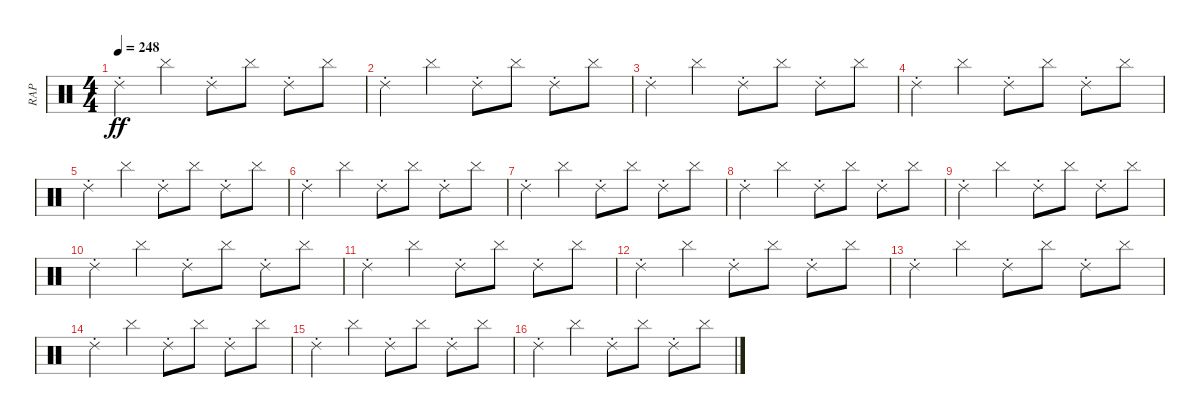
\track ("RAP" "RAP") {instrument percussion}
\staff {score}
\articulation defaults
\ts (4 4)
\tempo 248
\clef neutral
\ks c "Ride (choke) 2".4{dy ff} "Cymbal (hit)".4 "Ride (choke) 2".8 "Cymbal (hit)".8 "Ride (choke) 2".8 "Cymbal (hit)".8
|
"Ride (choke) 2".4 "Cymbal (hit)".4 "Ride (choke) 2".8 "Cymbal (hit)".8 "Ride (choke) 2".8 "Cymbal (hit)".8 |
"Ride (choke) 2".4 "Cymbal (hit)".4 "Ride (choke) 2".8 "Cymbal (hit)".8 "Ride (choke) 2".8 "Cymbal (hit)".8 |
"Ride (choke) 2".4 "Cymbal (hit)".4 "Ride (choke) 2".8 "Cymbal (hit)".8 "Ride (choke) 2".8 "Cymbal (hit)".8 |
"Ride (choke) 2".4 "Cymbal (hit)".4 "Ride (choke) 2".8 "Cymbal (hit)".8 "Ride (choke) 2".8 "Cymbal (hit)".8 |
"Ride (choke) 2".4 "Cymbal (hit)".4 "Ride (choke) 2".8 "Cymbal (hit)".8 "Ride (choke) 2".8 "Cymbal (hit)".8 |
"Ride (choke) 2".4 "Cymbal (hit)".4 "Ride (choke) 2".8 "Cymbal (hit)".8 "Ride (choke) 2".8 "Cymbal (hit)".8 |
"Ride (choke) 2".4 "Cymbal (hit)".4 "Ride (choke) 2".8 "Cymbal (hit)".8 "Ride (choke) 2".8 "Cymbal (hit)".8 |
"Ride (choke) 2".4 "Cymbal (hit)".4 "Ride (choke) 2".8 "Cymbal (hit)".8 "Ride (choke) 2".8 "Cymbal (hit)".8 |
"Ride (choke) 2".4 "Cymbal (hit)".4 "Ride (choke) 2".8 "Cymbal (hit)".8 "Ride (choke) 2".8 "Cymbal (hit)".8 |
"Ride (choke) 2".4 "Cymbal (hit)".4 "Ride (choke) 2".8 "Cymbal (hit)".8 "Ride (choke) 2".8 "Cymbal (hit)".8 |
"Ride (choke) 2".4 "Cymbal (hit)".4 "Ride (choke) 2".8 "Cymbal (hit)".8 "Ride (choke) 2".8 "Cymbal (hit)".8 |
"Ride (choke) 2".4 "Cymbal (hit)".4 "Ride (choke) 2".8 "Cymbal (hit)".8 "Ride (choke) 2".8 "Cymbal (hit)".8 |
"Ride (choke) 2".4 "Cymbal (hit)".4 "Ride (choke) 2".8 "Cymbal (hit)".8 "Ride (choke) 2".8 "Cymbal (hit)".8 |
"Ride (choke) 2".4 "Cymbal (hit)".4 "Ride (choke) 2".8 "Cymbal (hit)".8 "Ride (choke) 2".8 "Cymbal (hit)".8 |
"Ride (choke) 2".4 "Cymbal (hit)".4 "Ride (choke) 2".8 "Cymbal (hit)".8 "Ride (choke) 2".8 "Cymbal (hit)".8
